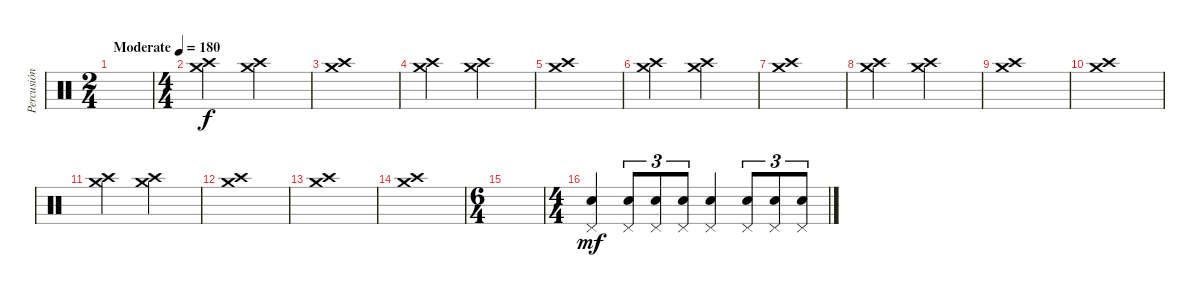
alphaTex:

\track ("Percusión" "Percusión") {instrument percussion}
\staff {score}
\articulation defaults
\ts (2 4)
\tempo (180 "Moderate")
\clef neutral
\ks c
|
\ts (4 4)
("Crash medium (hit)" "Crash high (hit)").2 ("Crash medium (hit)" "Crash high (hit)").2 |
("Crash medium (hit)" "Crash high (hit)").1 |
("Crash medium (hit)" "Crash high (hit)").2 ("Crash medium (hit)" "Crash high (hit)").2 |
("Crash medium (hit)" "Crash high (hit)").1 |
("Crash medium (hit)" "Crash high (hit)").2 ("Crash medium (hit)" "Crash high (hit)").2 |
("Crash medium (hit)" "Crash high (hit)").1 |
("Crash medium (hit)" "Crash high (hit)").2 ("Crash medium (hit)" "Crash high (hit)").2 |
("Crash medium (hit)" "Crash high (hit)").1 |
("Crash medium (hit)" "Crash high (hit)").1 |
("Crash medium (hit)" "Crash high (hit)").2 ("Crash medium (hit)" "Crash high (hit)").2 |
("Crash medium (hit)" "Crash high (hit)").1 |
("Crash medium (hit)" "Crash high (hit)").1 |
("Crash medium (hit)" "Crash high (hit)").1 |
\ts (6 4)
|
\ts (4 4)
("Pedal Hi-Hat (hit)" "Electric Snare (hit)").4{dy mf} ("Pedal Hi-Hat (hit)" "Electric Snare (hit)").8{tu (3 2)} ("Pedal Hi-Hat (hit)" "Electric Snare (hit)").8{tu (3 2)} ("Pedal Hi-Hat (hit)" "Electric Snare (hit)").8{tu (3 2)} ("Pedal Hi-Hat (hit)" "Electric Snare (hit)").4 ("Pedal Hi-Hat (hit)" "Electric Snare (hit)").8{tu (3 2)} ("Pedal Hi-Hat (hit)" "Electric Snare (hit)").8{tu (3 2)} ("Pedal Hi-Hat (hit)" "Electric Snare (hit)").8{tu (3 2)}
